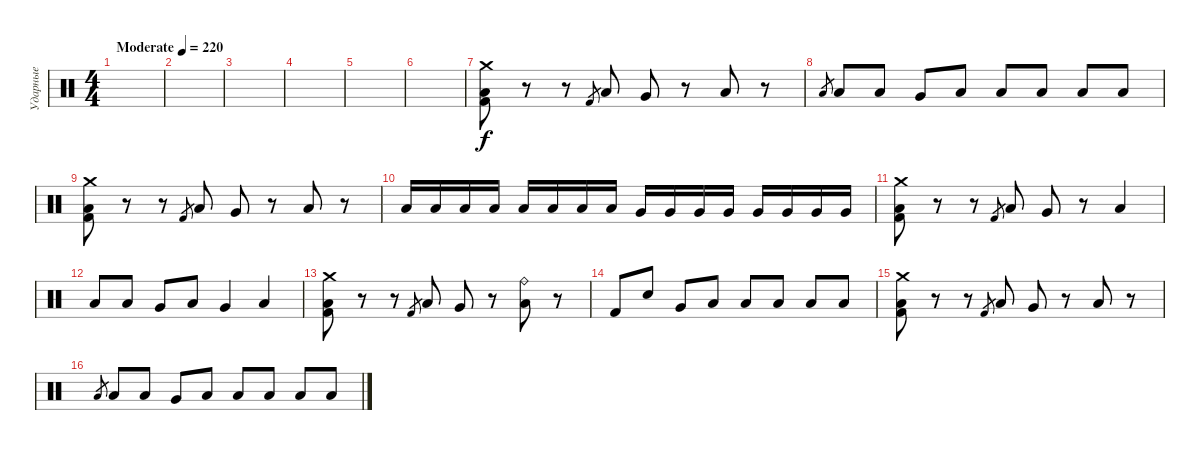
\track ("Ударные" "Ударные") {instrument percussion}
\staff {score}
\articulation defaults
\ts (4 4)
\tempo (220 "Moderate")
\clef neutral
\ks c
|
|
|
|
|
|
("Crash medium (hit)" "Low Tom (hit)" "Kick (hit) 2").8 r.8 r.8 "Kick (hit) 2".8{gr} "Low Tom (hit)".8 "Very Low Tom (hit)".8 r.8 "Low Tom (hit)".8 r.8 |
"Low Tom (hit)".8{gr} "Low Tom (hit)".8 "Low Tom (hit)".8 "Very Low Tom (hit)".8 "Low Tom (hit)".8 "Low Tom (hit)".8 "Low Tom (hit)".8 "Low Floor Tom (hit)".8 "Low Floor Tom (hit)".8 |
("Crash medium (hit)" "Low Tom (hit)" "Kick (hit) 2").8 r.8 r.8 "Kick (hit) 2".8{gr} "Low Tom (hit)".8 "Very Low Tom (hit)".8 r.8 "Low Tom (hit)".8 r.8 |
"Low Tom (hit)".16 "Low Tom (hit)".16 "Low Tom (hit)".16 "Low Tom (hit)".16 "Low Tom (hit)".16 "Low Tom (hit)".16 "Low Tom (hit)".16 "Low Tom (hit)".16 "Very Low Tom (hit)".16 "Very Low Tom (hit)".16 "Very Low Tom (hit)".16 "Very Low Tom (hit)".16 "Very Low Tom (hit)".16 "Very Low Tom (hit)".16 "Very Low Tom (hit)".16 "Very Low Tom (hit)".16 |
("Crash medium (hit)" "Low Tom (hit)" "Kick (hit) 2").8 r.8 r.8 "Kick (hit) 2".8{gr} "Low Tom (hit)".8 "Very Low Tom (hit)".8 r.8 "Low Tom (hit)".4 |
"Low Tom (hit)".8 "Low Tom (hit)".8 "Very Low Tom (hit)".8 "Low Tom (hit)".8 "Very Low Tom (hit)".4 "Low Floor Tom (hit)".4 |
("Crash medium (hit)" "Low Tom (hit)" "Kick (hit) 2").8 r.8 r.8 "Kick (hit) 2".8{gr} "Low Tom (hit)".8 "Very Low Tom (hit)".8 r.8 ("Ride (bell)" "Low Tom (hit)").8 r.8 |
"Kick (hit) 2".8 "Snare (hit) 2".8 "Very Low Tom (hit)".8 "Low Tom (hit)".8 "Low Tom (hit)".8 "Low Tom (hit)".8 "Low Floor Tom (hit)".8 "Low Floor Tom (hit)".8 |
("Crash medium (hit)" "Low Tom (hit)" "Kick (hit) 2").8 r.8 r.8 "Kick (hit) 2".8{gr} "Low Tom (hit)".8 "Very Low Tom (hit)".8 r.8 "Low Tom (hit)".8 r.8 |
"Low Tom (hit)".8{gr} "Low Tom (hit)".8 "Low Tom (hit)".8 "Very Low Tom (hit)".8 "Low Tom (hit)".8 "Low Tom (hit)".8 "Low Tom (hit)".8 "Low Floor Tom (hit)".8 "Low Floor Tom (hit)".8
